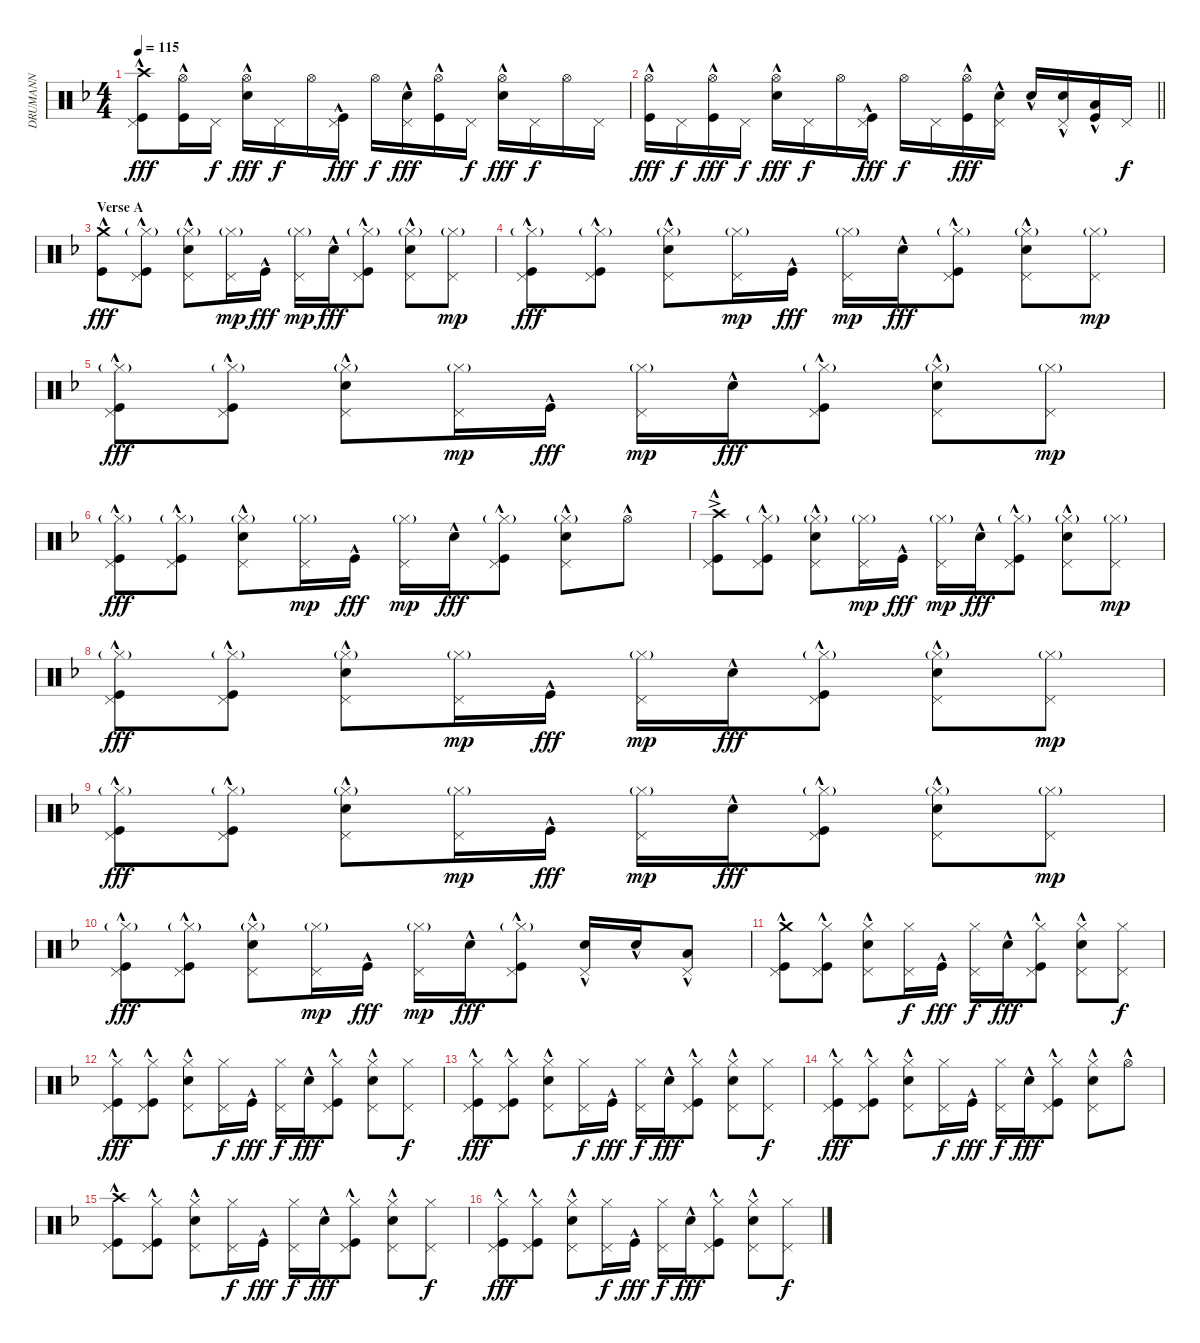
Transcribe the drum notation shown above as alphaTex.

\track ("DRUMANN" "DRUMANN") {instrument percussion}
\staff {score}
\articulation defaults
\ts (4 4)
\tempo 115
\clef neutral
\ks f
("Crash high (hit)"{hac} "Pedal Hi-Hat (hit)" "Kick (hit)"{hac}).8{dy fff} ("Hi-Hat (open)" "Kick (hit)"{hac}).16 "Pedal Hi-Hat (hit)".16{dy f} ("Hi-Hat (open)" "Snare (hit) 2"{hac}).16{dy fff} "Pedal Hi-Hat (hit)".16{dy f} "Hi-Hat (open)".16 ("Pedal Hi-Hat (hit)" "Kick (hit)"{hac}).16{dy fff} "Hi-Hat (open)".16{dy f} ("Snare (hit) 2"{hac} "Pedal Hi-Hat (hit)").16{dy fff} ("Hi-Hat (open)" "Kick (hit)"{hac}).16 "Pedal Hi-Hat (hit)".16{dy f} ("Hi-Hat (open)" "Snare (hit) 2"{hac}).16{dy fff} "Pedal Hi-Hat (hit)".16{dy f} "Hi-Hat (open)".16 "Pedal Hi-Hat (hit)".16 |
\barLineRight lightlight
("Hi-Hat (open)" "Kick (hit)"{hac}).16{dy fff} "Pedal Hi-Hat (hit)".16{dy f} ("Hi-Hat (open)" "Kick (hit)"{hac}).16{dy fff} "Pedal Hi-Hat (hit)".16{dy f} ("Hi-Hat (open)" "Snare (hit) 2"{hac}).16{dy fff} "Pedal Hi-Hat (hit)".16{dy f} "Hi-Hat (open)".16 ("Pedal Hi-Hat (hit)" "Kick (hit)"{hac}).16{dy fff} "Hi-Hat (open)".16{dy f} "Pedal Hi-Hat (hit)".16 ("Hi-Hat (open)" "Kick (hit)"{hac}).16{dy fff} ("Snare (hit) 2"{hac} "Pedal Hi-Hat (hit)").16 "Snare (hit) 2"{hac}.16 ("Snare (hit) 2"{hac} "Pedal Hi-Hat (hit)").16 ("Low Tom (hit)"{hac} "Kick (hit)"{hac}).16 "Pedal Hi-Hat (hit)".16{dy f} |
\section ("" "Verse A")
("Crash medium (hit)"{hac} "Kick (hit)"{hac}).8{dy fff} ("Hi-Hat (closed)"{g} "Pedal Hi-Hat (hit)" "Kick (hit)"{hac}).8 ("Hi-Hat (closed)"{g} "Snare (hit) 2"{hac} "Pedal Hi-Hat (hit)").8 ("Hi-Hat (closed)"{g} "Pedal Hi-Hat (hit)").16{dy mp} "Kick (hit)"{hac}.16{dy fff} ("Hi-Hat (closed)"{g} "Pedal Hi-Hat (hit)").16{dy mp} "Snare (hit) 2"{hac}.16{dy fff} ("Hi-Hat (closed)"{g} "Pedal Hi-Hat (hit)" "Kick (hit)"{hac}).8 ("Hi-Hat (closed)"{g} "Snare (hit) 2"{hac} "Pedal Hi-Hat (hit)").8 ("Hi-Hat (closed)"{g} "Pedal Hi-Hat (hit)").8{dy mp} |
("Hi-Hat (closed)"{g} "Pedal Hi-Hat (hit)" "Kick (hit)"{hac}).8{dy fff} ("Hi-Hat (closed)"{g} "Pedal Hi-Hat (hit)" "Kick (hit)"{hac}).8 ("Hi-Hat (closed)"{g} "Snare (hit) 2"{hac} "Pedal Hi-Hat (hit)").8 ("Hi-Hat (closed)"{g} "Pedal Hi-Hat (hit)").16{dy mp} "Kick (hit)"{hac}.16{dy fff} ("Hi-Hat (closed)"{g} "Pedal Hi-Hat (hit)").16{dy mp} "Snare (hit) 2"{hac}.16{dy fff} ("Hi-Hat (closed)"{g} "Pedal Hi-Hat (hit)" "Kick (hit)"{hac}).8 ("Hi-Hat (closed)"{g} "Snare (hit) 2"{hac} "Pedal Hi-Hat (hit)").8 ("Hi-Hat (closed)"{g} "Pedal Hi-Hat (hit)").8{dy mp} |
("Hi-Hat (closed)"{g} "Pedal Hi-Hat (hit)" "Kick (hit)"{hac}).8{dy fff} ("Hi-Hat (closed)"{g} "Pedal Hi-Hat (hit)" "Kick (hit)"{hac}).8 ("Hi-Hat (closed)"{g} "Snare (hit) 2"{hac} "Pedal Hi-Hat (hit)").8 ("Hi-Hat (closed)"{g} "Pedal Hi-Hat (hit)").16{dy mp} "Kick (hit)"{hac}.16{dy fff} ("Hi-Hat (closed)"{g} "Pedal Hi-Hat (hit)").16{dy mp} "Snare (hit) 2"{hac}.16{dy fff} ("Hi-Hat (closed)"{g} "Pedal Hi-Hat (hit)" "Kick (hit)"{hac}).8 ("Hi-Hat (closed)"{g} "Snare (hit) 2"{hac} "Pedal Hi-Hat (hit)").8 ("Hi-Hat (closed)"{g} "Pedal Hi-Hat (hit)").8{dy mp} |
("Hi-Hat (closed)"{g} "Pedal Hi-Hat (hit)" "Kick (hit)"{hac}).8{dy fff} ("Hi-Hat (closed)"{g} "Pedal Hi-Hat (hit)" "Kick (hit)"{hac}).8 ("Hi-Hat (closed)"{g} "Snare (hit) 2"{hac} "Pedal Hi-Hat (hit)").8 ("Hi-Hat (closed)"{g} "Pedal Hi-Hat (hit)").16{dy mp} "Kick (hit)"{hac}.16{dy fff} ("Hi-Hat (closed)"{g} "Pedal Hi-Hat (hit)").16{dy mp} "Snare (hit) 2"{hac}.16{dy fff} ("Hi-Hat (closed)"{g} "Pedal Hi-Hat (hit)" "Kick (hit)"{hac}).8 ("Hi-Hat (closed)"{g} "Snare (hit) 2"{hac} "Pedal Hi-Hat (hit)").8 "Hi-Hat (open)"{hac}.8 |
("Crash high (hit)"{ac} "Pedal Hi-Hat (hit)" "Kick (hit)"{hac}).8 ("Hi-Hat (closed)"{g} "Pedal Hi-Hat (hit)" "Kick (hit)"{hac}).8 ("Hi-Hat (closed)"{g} "Snare (hit) 2"{hac} "Pedal Hi-Hat (hit)").8 ("Hi-Hat (closed)"{g} "Pedal Hi-Hat (hit)").16{dy mp} "Kick (hit)"{hac}.16{dy fff} ("Hi-Hat (closed)"{g} "Pedal Hi-Hat (hit)").16{dy mp} "Snare (hit) 2"{hac}.16{dy fff} ("Hi-Hat (closed)"{g} "Pedal Hi-Hat (hit)" "Kick (hit)"{hac}).8 ("Hi-Hat (closed)"{g} "Snare (hit) 2"{hac} "Pedal Hi-Hat (hit)").8 ("Hi-Hat (closed)"{g} "Pedal Hi-Hat (hit)").8{dy mp} |
("Hi-Hat (closed)"{g} "Pedal Hi-Hat (hit)" "Kick (hit)"{hac}).8{dy fff} ("Hi-Hat (closed)"{g} "Pedal Hi-Hat (hit)" "Kick (hit)"{hac}).8 ("Hi-Hat (closed)"{g} "Snare (hit) 2"{hac} "Pedal Hi-Hat (hit)").8 ("Hi-Hat (closed)"{g} "Pedal Hi-Hat (hit)").16{dy mp} "Kick (hit)"{hac}.16{dy fff} ("Hi-Hat (closed)"{g} "Pedal Hi-Hat (hit)").16{dy mp} "Snare (hit) 2"{hac}.16{dy fff} ("Hi-Hat (closed)"{g} "Pedal Hi-Hat (hit)" "Kick (hit)"{hac}).8 ("Hi-Hat (closed)"{g} "Snare (hit) 2"{hac} "Pedal Hi-Hat (hit)").8 ("Hi-Hat (closed)"{g} "Pedal Hi-Hat (hit)").8{dy mp} |
("Hi-Hat (closed)"{g} "Pedal Hi-Hat (hit)" "Kick (hit)"{hac}).8{dy fff} ("Hi-Hat (closed)"{g} "Pedal Hi-Hat (hit)" "Kick (hit)"{hac}).8 ("Hi-Hat (closed)"{g} "Snare (hit) 2"{hac} "Pedal Hi-Hat (hit)").8 ("Hi-Hat (closed)"{g} "Pedal Hi-Hat (hit)").16{dy mp} "Kick (hit)"{hac}.16{dy fff} ("Hi-Hat (closed)"{g} "Pedal Hi-Hat (hit)").16{dy mp} "Snare (hit) 2"{hac}.16{dy fff} ("Hi-Hat (closed)"{g} "Pedal Hi-Hat (hit)" "Kick (hit)"{hac}).8 ("Hi-Hat (closed)"{g} "Snare (hit) 2"{hac} "Pedal Hi-Hat (hit)").8 ("Hi-Hat (closed)"{g} "Pedal Hi-Hat (hit)").8{dy mp} |
("Hi-Hat (closed)"{g} "Pedal Hi-Hat (hit)" "Kick (hit)"{hac}).8{dy fff} ("Hi-Hat (closed)"{g} "Pedal Hi-Hat (hit)" "Kick (hit)"{hac}).8 ("Hi-Hat (closed)"{g} "Snare (hit) 2"{hac} "Pedal Hi-Hat (hit)").8 ("Hi-Hat (closed)"{g} "Pedal Hi-Hat (hit)").16{dy mp} "Kick (hit)"{hac}.16{dy fff} ("Hi-Hat (closed)"{g} "Pedal Hi-Hat (hit)").16{dy mp} "Snare (hit) 2"{hac}.16{dy fff} ("Hi-Hat (closed)"{g} "Pedal Hi-Hat (hit)" "Kick (hit)"{hac}).8 ("Snare (hit) 2"{hac} "Pedal Hi-Hat (hit)").16 "Snare (hit) 2"{hac}.16 ("Low Tom (hit)"{hac} "Pedal Hi-Hat (hit)").8 |
("Crash medium (hit)"{hac} "Pedal Hi-Hat (hit)" "Kick (hit)"{hac}).8 ("Hi-Hat (closed)" "Pedal Hi-Hat (hit)" "Kick (hit)"{hac}).8 ("Hi-Hat (closed)" "Snare (hit) 2"{hac} "Pedal Hi-Hat (hit)").8 ("Hi-Hat (closed)" "Pedal Hi-Hat (hit)").16{dy f} "Kick (hit)"{hac}.16{dy fff} ("Hi-Hat (closed)" "Pedal Hi-Hat (hit)").16{dy f} "Snare (hit) 2"{hac}.16{dy fff} ("Hi-Hat (closed)" "Pedal Hi-Hat (hit)" "Kick (hit)"{hac}).8 ("Hi-Hat (closed)" "Snare (hit) 2"{hac} "Pedal Hi-Hat (hit)").8 ("Hi-Hat (closed)" "Pedal Hi-Hat (hit)").8{dy f} |
("Hi-Hat (closed)" "Pedal Hi-Hat (hit)" "Kick (hit)"{hac}).8{dy fff} ("Hi-Hat (closed)" "Pedal Hi-Hat (hit)" "Kick (hit)"{hac}).8 ("Hi-Hat (closed)" "Snare (hit) 2"{hac} "Pedal Hi-Hat (hit)").8 ("Hi-Hat (closed)" "Pedal Hi-Hat (hit)").16{dy f} "Kick (hit)"{hac}.16{dy fff} ("Hi-Hat (closed)" "Pedal Hi-Hat (hit)").16{dy f} "Snare (hit) 2"{hac}.16{dy fff} ("Hi-Hat (closed)" "Pedal Hi-Hat (hit)" "Kick (hit)"{hac}).8 ("Hi-Hat (closed)" "Snare (hit) 2"{hac} "Pedal Hi-Hat (hit)").8 ("Hi-Hat (closed)" "Pedal Hi-Hat (hit)").8{dy f} |
("Hi-Hat (closed)" "Pedal Hi-Hat (hit)" "Kick (hit)"{hac}).8{dy fff} ("Hi-Hat (closed)" "Pedal Hi-Hat (hit)" "Kick (hit)"{hac}).8 ("Hi-Hat (closed)" "Snare (hit) 2"{hac} "Pedal Hi-Hat (hit)").8 ("Hi-Hat (closed)" "Pedal Hi-Hat (hit)").16{dy f} "Kick (hit)"{hac}.16{dy fff} ("Hi-Hat (closed)" "Pedal Hi-Hat (hit)").16{dy f} "Snare (hit) 2"{hac}.16{dy fff} ("Hi-Hat (closed)" "Pedal Hi-Hat (hit)" "Kick (hit)"{hac}).8 ("Hi-Hat (closed)" "Snare (hit) 2"{hac} "Pedal Hi-Hat (hit)").8 ("Hi-Hat (closed)" "Pedal Hi-Hat (hit)").8{dy f} |
("Hi-Hat (closed)" "Pedal Hi-Hat (hit)" "Kick (hit)"{hac}).8{dy fff} ("Hi-Hat (closed)" "Pedal Hi-Hat (hit)" "Kick (hit)"{hac}).8 ("Hi-Hat (closed)" "Snare (hit) 2"{hac} "Pedal Hi-Hat (hit)").8 ("Hi-Hat (closed)" "Pedal Hi-Hat (hit)").16{dy f} "Kick (hit)"{hac}.16{dy fff} ("Hi-Hat (closed)" "Pedal Hi-Hat (hit)").16{dy f} "Snare (hit) 2"{hac}.16{dy fff} ("Hi-Hat (closed)" "Pedal Hi-Hat (hit)" "Kick (hit)"{hac}).8 ("Hi-Hat (closed)" "Snare (hit) 2"{hac} "Pedal Hi-Hat (hit)").8 "Hi-Hat (open)"{hac}.8 |
("Crash high (hit)"{hac} "Pedal Hi-Hat (hit)" "Kick (hit)"{hac}).8 ("Hi-Hat (closed)" "Pedal Hi-Hat (hit)" "Kick (hit)"{hac}).8 ("Hi-Hat (closed)" "Snare (hit) 2"{hac} "Pedal Hi-Hat (hit)").8 ("Hi-Hat (closed)" "Pedal Hi-Hat (hit)").16{dy f} "Kick (hit)"{hac}.16{dy fff} ("Hi-Hat (closed)" "Pedal Hi-Hat (hit)").16{dy f} "Snare (hit) 2"{hac}.16{dy fff} ("Hi-Hat (closed)" "Pedal Hi-Hat (hit)" "Kick (hit)"{hac}).8 ("Hi-Hat (closed)" "Snare (hit) 2"{hac} "Pedal Hi-Hat (hit)").8 ("Hi-Hat (closed)" "Pedal Hi-Hat (hit)").8{dy f} |
("Hi-Hat (closed)" "Pedal Hi-Hat (hit)" "Kick (hit)"{hac}).8{dy fff} ("Hi-Hat (closed)" "Pedal Hi-Hat (hit)" "Kick (hit)"{hac}).8 ("Hi-Hat (closed)" "Snare (hit) 2"{hac} "Pedal Hi-Hat (hit)").8 ("Hi-Hat (closed)" "Pedal Hi-Hat (hit)").16{dy f} "Kick (hit)"{hac}.16{dy fff} ("Hi-Hat (closed)" "Pedal Hi-Hat (hit)").16{dy f} "Snare (hit) 2"{hac}.16{dy fff} ("Hi-Hat (closed)" "Pedal Hi-Hat (hit)" "Kick (hit)"{hac}).8 ("Hi-Hat (closed)" "Snare (hit) 2"{hac} "Pedal Hi-Hat (hit)").8 ("Hi-Hat (closed)" "Pedal Hi-Hat (hit)").8{dy f}
